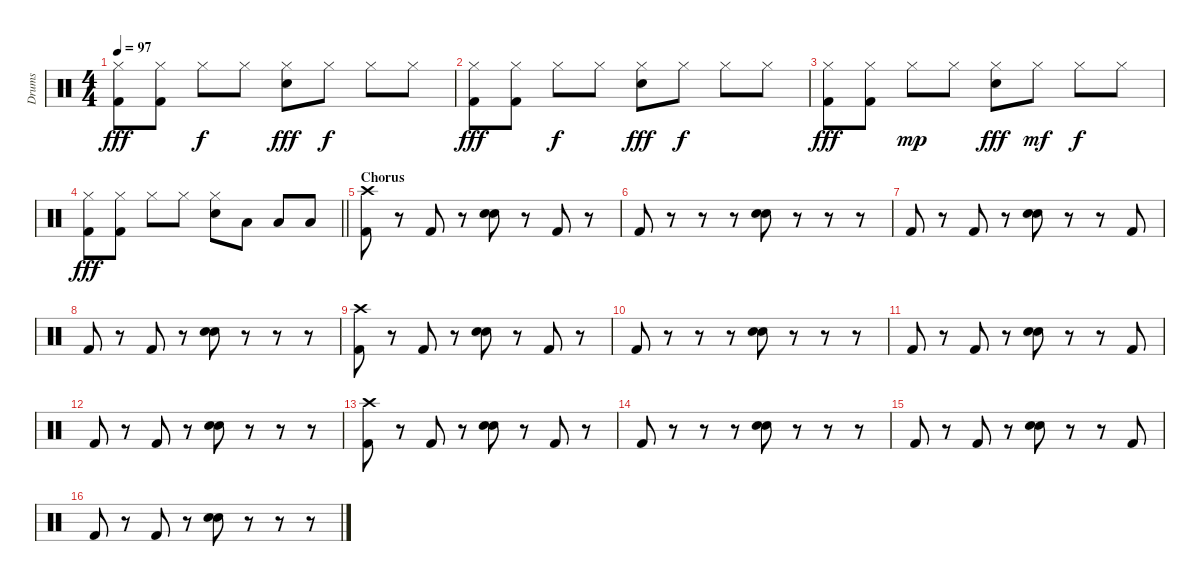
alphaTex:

\track ("Drums" "Drums") {instrument percussion}
\staff {score}
\articulation defaults
\ts (4 4)
\tempo 97
\clef neutral
\ks c
("Hi-Hat (closed)" "Kick (hit) 2").8{dy fff} ("Hi-Hat (closed)" "Kick (hit) 2").8 "Hi-Hat (closed)".8{dy f} "Hi-Hat (closed)".8 ("Hi-Hat (closed)" "Electric Snare (hit)").8{dy fff} "Hi-Hat (closed)".8{dy f} "Hi-Hat (closed)".8 "Hi-Hat (closed)".8 |
("Hi-Hat (closed)" "Kick (hit) 2").8{dy fff} ("Hi-Hat (closed)" "Kick (hit) 2").8 "Hi-Hat (closed)".8{dy f} "Hi-Hat (closed)".8 ("Hi-Hat (closed)" "Electric Snare (hit)").8{dy fff} "Hi-Hat (closed)".8{dy f} "Hi-Hat (closed)".8 "Hi-Hat (closed)".8 |
("Hi-Hat (closed)" "Kick (hit) 2").8{dy fff} ("Hi-Hat (closed)" "Kick (hit) 2").8 "Hi-Hat (closed)".8{dy mp} "Hi-Hat (closed)".8 ("Hi-Hat (closed)" "Electric Snare (hit)").8{dy fff} "Hi-Hat (closed)".8{dy mf} "Hi-Hat (closed)".8{dy f} "Hi-Hat (closed)".8 |
\barLineRight lightlight
("Hi-Hat (closed)" "Kick (hit) 2").8{dy fff} ("Hi-Hat (closed)" "Kick (hit) 2").8 "Hi-Hat (closed)".8 "Hi-Hat (closed)".8 ("Hi-Hat (closed)" "Electric Snare (hit)").8 "Low Floor Tom (hit)".8 "Low Tom (hit)".8 "Low Tom (hit)".8 |
\section ("" "Chorus")
("Crash high (hit)" "Kick (hit) 2").8 r.8 "Kick (hit) 2".8 r.8 ("Electric Snare (hit)" "Electric Snare (hit)").8 r.8 "Kick (hit) 2".8 r.8 |
"Kick (hit) 2".8 r.8 r.8 r.8 ("Electric Snare (hit)" "Electric Snare (hit)").8 r.8 r.8 r.8 |
"Kick (hit) 2".8 r.8 "Kick (hit) 2".8 r.8 ("Electric Snare (hit)" "Electric Snare (hit)").8 r.8 r.8 "Kick (hit) 2".8 |
"Kick (hit) 2".8 r.8 "Kick (hit) 2".8 r.8 ("Electric Snare (hit)" "Electric Snare (hit)").8 r.8 r.8 r.8 |
("Crash high (hit)" "Kick (hit) 2").8 r.8 "Kick (hit) 2".8 r.8 ("Electric Snare (hit)" "Electric Snare (hit)").8 r.8 "Kick (hit) 2".8 r.8 |
"Kick (hit) 2".8 r.8 r.8 r.8 ("Electric Snare (hit)" "Electric Snare (hit)").8 r.8 r.8 r.8 |
"Kick (hit) 2".8 r.8 "Kick (hit) 2".8 r.8 ("Electric Snare (hit)" "Electric Snare (hit)").8 r.8 r.8 "Kick (hit) 2".8 |
"Kick (hit) 2".8 r.8 "Kick (hit) 2".8 r.8 ("Electric Snare (hit)" "Electric Snare (hit)").8 r.8 r.8 r.8 |
("Crash high (hit)" "Kick (hit) 2").8 r.8 "Kick (hit) 2".8 r.8 ("Electric Snare (hit)" "Electric Snare (hit)").8 r.8 "Kick (hit) 2".8 r.8 |
"Kick (hit) 2".8 r.8 r.8 r.8 ("Electric Snare (hit)" "Electric Snare (hit)").8 r.8 r.8 r.8 |
"Kick (hit) 2".8 r.8 "Kick (hit) 2".8 r.8 ("Electric Snare (hit)" "Electric Snare (hit)").8 r.8 r.8 "Kick (hit) 2".8 |
"Kick (hit) 2".8 r.8 "Kick (hit) 2".8 r.8 ("Electric Snare (hit)" "Electric Snare (hit)").8 r.8 r.8 r.8
